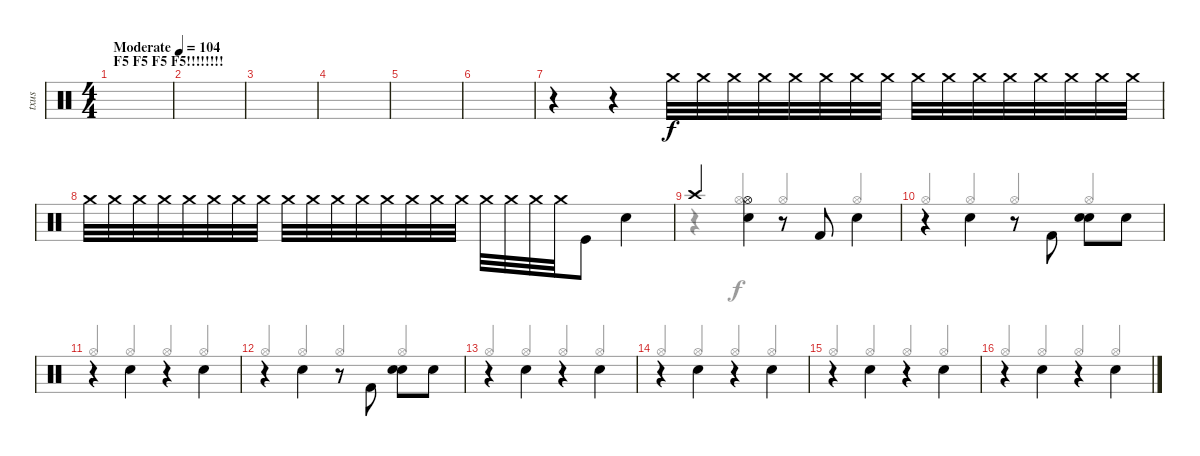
\track ("txus" "txus") {instrument percussion}
\staff {score}
\articulation defaults
\voice
\ts (4 4)
\section ("" "F5 F5 F5 F5!!!!!!!!")
\tempo (104 "Moderate")
\clef neutral
\ks c
|
|
|
|
|
|
r.4 r.4{volume 7} "Crash medium (hit)".32{volume 1} "Crash medium (hit)".32 "Crash medium (hit)".32{volume 3} "Crash medium (hit)".32 "Crash medium (hit)".32{volume 4} "Crash medium (hit)".32 "Crash medium (hit)".32 "Crash medium (hit)".32{volume 5} "Crash medium (hit)".32{volume 4} "Crash medium (hit)".32 "Crash medium (hit)".32{volume 7} "Crash medium (hit)".32 "Crash medium (hit)".32{volume 1} "Crash medium (hit)".32 "Crash medium (hit)".32 "Crash medium (hit)".32{volume 2} |
"Crash medium (hit)".32{volume 2} "Crash medium (hit)".32 "Crash medium (hit)".32{volume 4} "Crash medium (hit)".32 "Crash medium (hit)".32{volume 5} "Crash medium (hit)".32 "Crash medium (hit)".32 "Crash medium (hit)".32{volume 7} "Crash medium (hit)".32 "Crash medium (hit)".32 "Crash medium (hit)".32{volume 8} "Crash medium (hit)".32 "Crash medium (hit)".32 "Crash medium (hit)".32 "Crash medium (hit)".32{volume 10} "Crash medium (hit)".32 "Crash medium (hit)".32 "Crash medium (hit)".32 "Crash medium (hit)".32 "Crash medium (hit)".32 "Kick (hit)".8{volume 13} "Electric Snare (hit)".4 |
"Crash high (hit)".4 ("Hi-Hat (open)" "Electric Snare (hit)").4{beam Down} r.8 "Kick (hit) 2".8 "Electric Snare (hit)".4{beam Down} |
r.4 "Electric Snare (hit)".4{beam Down} r.8 "Kick (hit) 2".8{beam Down} ("Electric Snare (hit)" "Electric Snare (hit)").8{beam Down} "Electric Snare (hit)".8 |
r.4 "Electric Snare (hit)".4{beam Down} r.4 "Electric Snare (hit)".4{beam Down} |
r.4 "Electric Snare (hit)".4{beam Down} r.8 "Kick (hit) 2".8{beam Down} ("Electric Snare (hit)" "Electric Snare (hit)").8{beam Down} "Electric Snare (hit)".8 |
r.4 "Snare (hit) 2".4{beam Down} r.4 "Snare (hit) 2".4{beam Down} |
r.4 "Snare (hit) 2".4{beam Down} r.4 "Snare (hit) 2".4{beam Down} |
r.4 "Snare (hit) 2".4{beam Down} r.4 "Snare (hit) 2".4{beam Down} |
r.4 "Snare (hit) 2".4{beam Down} r.4 "Snare (hit) 2".4{beam Down}
\voice
\clef neutral
\ottava regular
\simile none
\ks c
|
|
|
|
|
|
|
|
r.4{beam Up} "Hi-Hat (open)".4{beam Up} "Hi-Hat (open)".4{beam Up} "Hi-Hat (open)".4{beam Up} |
"Hi-Hat (open)".4{beam Up} "Hi-Hat (open)".4{beam Up} "Hi-Hat (open)".4{beam Up} "Hi-Hat (open)".4{beam Up} |
"Hi-Hat (open)".4{beam Up} "Hi-Hat (open)".4{beam Up} "Hi-Hat (open)".4{beam Up} "Hi-Hat (open)".4{beam Up} |
"Hi-Hat (open)".4{beam Up} "Hi-Hat (open)".4{beam Up} "Hi-Hat (open)".4{beam Up} "Hi-Hat (open)".4{beam Up} |
"Hi-Hat (open)".4{beam Up} "Hi-Hat (open)".4{beam Up} "Hi-Hat (open)".4{beam Up} "Hi-Hat (open)".4{beam Up} |
"Hi-Hat (open)".4{beam Up} "Hi-Hat (open)".4{beam Up} "Hi-Hat (open)".4{beam Up} "Hi-Hat (open)".4{beam Up} |
"Hi-Hat (open)".4{beam Up} "Hi-Hat (open)".4{beam Up} "Hi-Hat (open)".4{beam Up} "Hi-Hat (open)".4{beam Up} |
"Hi-Hat (open)".4{beam Up} "Hi-Hat (open)".4{beam Up} "Hi-Hat (open)".4{beam Up} "Hi-Hat (open)".4{beam Up}
